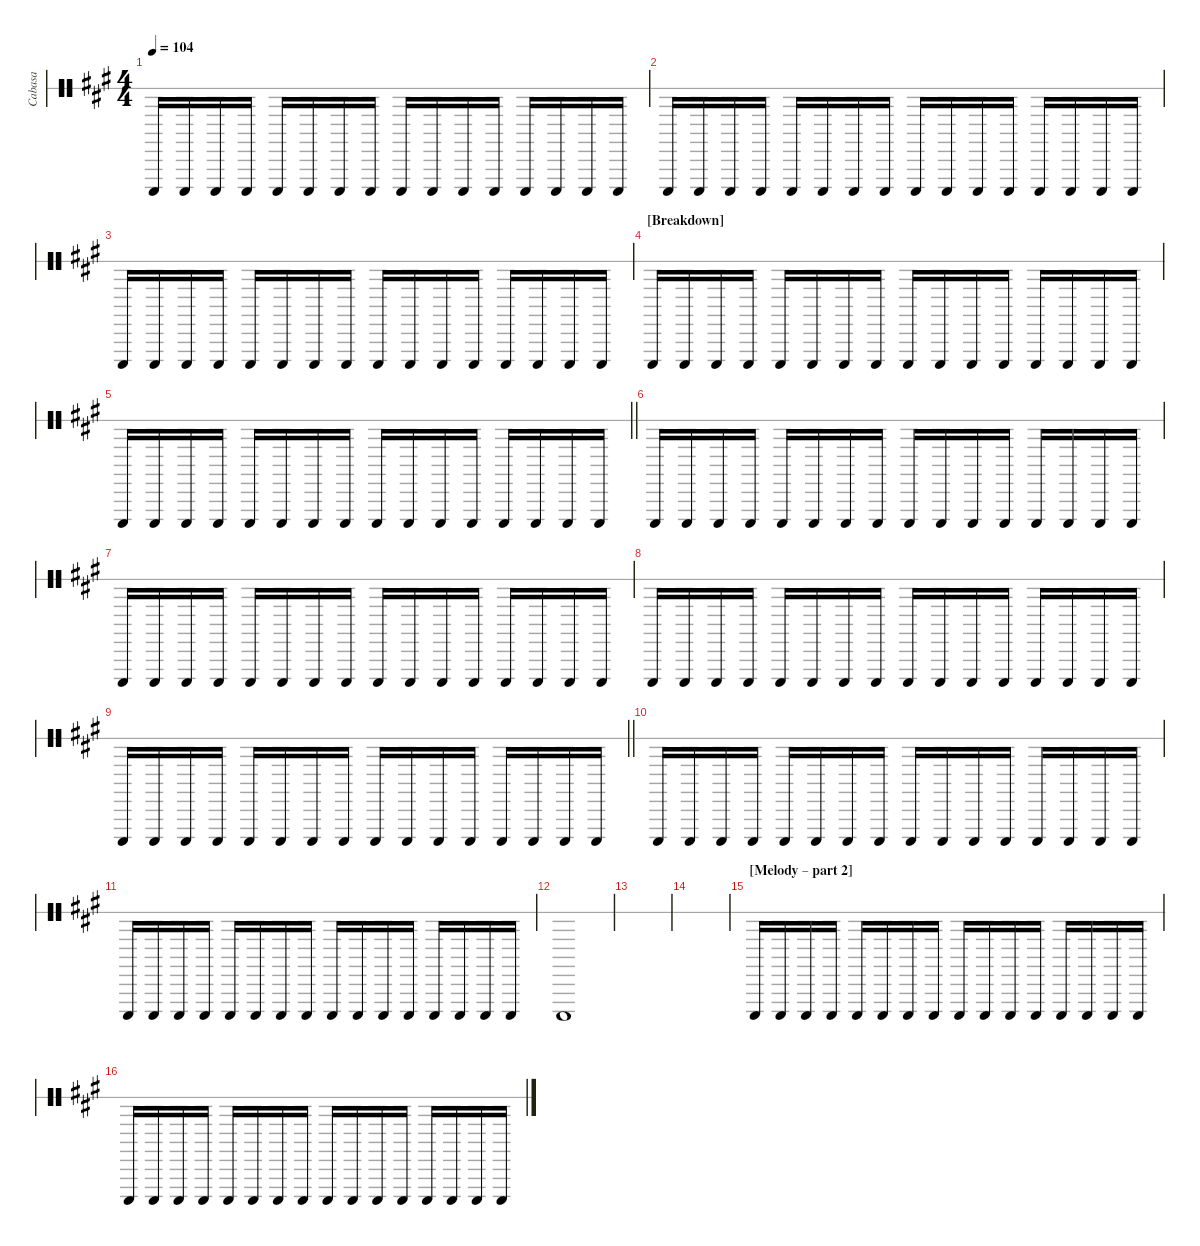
\hideDynamics
\bracketExtendMode nobrackets
\otherSystemsTrackNameOrientation horizontal
\track ("Cabasa" "Cabasa") {instrument percussion}
\staff {score 1}
\articulation defaults
\ts (4 4)
\tempo 104
\clef neutral
\ks a "Cabasa (hit)"{acc forcenatural}.16{dy f beam Up} "Cabasa (hit)"{acc forcenatural}.16{beam Up} "Cabasa (hit)"{acc forcenatural}.16{beam Up} "Cabasa (hit)"{acc forcenatural}.16{beam Up} "Cabasa (hit)"{acc forcenatural}.16{beam Up} "Cabasa (hit)"{acc forcenatural}.16{beam Up} "Cabasa (hit)"{acc forcenatural}.16{beam Up} "Cabasa (hit)"{acc forcenatural}.16{beam Up} "Cabasa (hit)"{acc forcenatural}.16{beam Up} "Cabasa (hit)"{acc forcenatural}.16{beam Up} "Cabasa (hit)"{acc forcenatural}.16{beam Up} "Cabasa (hit)"{acc forcenatural}.16{beam Up} "Cabasa (hit)"{acc forcenatural}.16{beam Up} "Cabasa (hit)"{acc forcenatural}.16{beam Up} "Cabasa (hit)"{acc forcenatural}.16{beam Up} "Cabasa (hit)"{acc forcenatural}.16{beam Up}
|
"Cabasa (hit)"{acc forcenatural}.16{beam Up} "Cabasa (hit)"{acc forcenatural}.16{beam Up} "Cabasa (hit)"{acc forcenatural}.16{beam Up} "Cabasa (hit)"{acc forcenatural}.16{beam Up} "Cabasa (hit)"{acc forcenatural}.16{beam Up} "Cabasa (hit)"{acc forcenatural}.16{beam Up} "Cabasa (hit)"{acc forcenatural}.16{beam Up} "Cabasa (hit)"{acc forcenatural}.16{beam Up} "Cabasa (hit)"{acc forcenatural}.16{beam Up} "Cabasa (hit)"{acc forcenatural}.16{beam Up} "Cabasa (hit)"{acc forcenatural}.16{beam Up} "Cabasa (hit)"{acc forcenatural}.16{beam Up} "Cabasa (hit)"{acc forcenatural}.16{beam Up} "Cabasa (hit)"{acc forcenatural}.16{beam Up} "Cabasa (hit)"{acc forcenatural}.16{beam Up} "Cabasa (hit)"{acc forcenatural}.16{beam Up} |
"Cabasa (hit)"{acc forcenatural}.16{beam Up} "Cabasa (hit)"{acc forcenatural}.16{beam Up} "Cabasa (hit)"{acc forcenatural}.16{beam Up} "Cabasa (hit)"{acc forcenatural}.16{beam Up} "Cabasa (hit)"{acc forcenatural}.16{beam Up} "Cabasa (hit)"{acc forcenatural}.16{beam Up} "Cabasa (hit)"{acc forcenatural}.16{beam Up} "Cabasa (hit)"{acc forcenatural}.16{beam Up} "Cabasa (hit)"{acc forcenatural}.16{beam Up} "Cabasa (hit)"{acc forcenatural}.16{beam Up} "Cabasa (hit)"{acc forcenatural}.16{beam Up} "Cabasa (hit)"{acc forcenatural}.16{beam Up} "Cabasa (hit)"{acc forcenatural}.16{beam Up} "Cabasa (hit)"{acc forcenatural}.16{beam Up} "Cabasa (hit)"{acc forcenatural}.16{beam Up} "Cabasa (hit)"{acc forcenatural}.16{beam Up} |
\section ("" "[Breakdown]")
"Cabasa (hit)"{acc forcenatural}.16{beam Up} "Cabasa (hit)"{acc forcenatural}.16{beam Up} "Cabasa (hit)"{acc forcenatural}.16{beam Up} "Cabasa (hit)"{acc forcenatural}.16{beam Up} "Cabasa (hit)"{acc forcenatural}.16{beam Up} "Cabasa (hit)"{acc forcenatural}.16{beam Up} "Cabasa (hit)"{acc forcenatural}.16{beam Up} "Cabasa (hit)"{acc forcenatural}.16{beam Up} "Cabasa (hit)"{acc forcenatural}.16{beam Up} "Cabasa (hit)"{acc forcenatural}.16{beam Up} "Cabasa (hit)"{acc forcenatural}.16{beam Up} "Cabasa (hit)"{acc forcenatural}.16{beam Up} "Cabasa (hit)"{acc forcenatural}.16{beam Up} "Cabasa (hit)"{acc forcenatural}.16{beam Up} "Cabasa (hit)"{acc forcenatural}.16{beam Up} "Cabasa (hit)"{acc forcenatural}.16{beam Up} |
\barLineRight lightlight "Cabasa (hit)"{acc forcenatural}.16{beam Up} "Cabasa (hit)"{acc forcenatural}.16{beam Up} "Cabasa (hit)"{acc forcenatural}.16{beam Up} "Cabasa (hit)"{acc forcenatural}.16{beam Up} "Cabasa (hit)"{acc forcenatural}.16{beam Up} "Cabasa (hit)"{acc forcenatural}.16{beam Up} "Cabasa (hit)"{acc forcenatural}.16{beam Up} "Cabasa (hit)"{acc forcenatural}.16{beam Up} "Cabasa (hit)"{acc forcenatural}.16{beam Up} "Cabasa (hit)"{acc forcenatural}.16{beam Up} "Cabasa (hit)"{acc forcenatural}.16{beam Up} "Cabasa (hit)"{acc forcenatural}.16{beam Up} "Cabasa (hit)"{acc forcenatural}.16{beam Up} "Cabasa (hit)"{acc forcenatural}.16{beam Up} "Cabasa (hit)"{acc forcenatural}.16{beam Up} "Cabasa (hit)"{acc forcenatural}.16{beam Up}
|
"Cabasa (hit)"{acc forcenatural}.16{beam Up} "Cabasa (hit)"{acc forcenatural}.16{beam Up} "Cabasa (hit)"{acc forcenatural}.16{beam Up} "Cabasa (hit)"{acc forcenatural}.16{beam Up} "Cabasa (hit)"{acc forcenatural}.16{beam Up} "Cabasa (hit)"{acc forcenatural}.16{beam Up} "Cabasa (hit)"{acc forcenatural}.16{beam Up} "Cabasa (hit)"{acc forcenatural}.16{beam Up} "Cabasa (hit)"{acc forcenatural}.16{beam Up} "Cabasa (hit)"{acc forcenatural}.16{beam Up} "Cabasa (hit)"{acc forcenatural}.16{beam Up} "Cabasa (hit)"{acc forcenatural}.16{beam Up} "Cabasa (hit)"{acc forcenatural}.16{beam Up} "Cabasa (hit)"{acc forcenatural}.16{beam Up} "Cabasa (hit)"{acc forcenatural}.16{beam Up} "Cabasa (hit)"{acc forcenatural}.16{beam Up} |
"Cabasa (hit)"{acc forcenatural}.16{beam Up} "Cabasa (hit)"{acc forcenatural}.16{beam Up} "Cabasa (hit)"{acc forcenatural}.16{beam Up} "Cabasa (hit)"{acc forcenatural}.16{beam Up} "Cabasa (hit)"{acc forcenatural}.16{beam Up} "Cabasa (hit)"{acc forcenatural}.16{beam Up} "Cabasa (hit)"{acc forcenatural}.16{beam Up} "Cabasa (hit)"{acc forcenatural}.16{beam Up} "Cabasa (hit)"{acc forcenatural}.16{beam Up} "Cabasa (hit)"{acc forcenatural}.16{beam Up} "Cabasa (hit)"{acc forcenatural}.16{beam Up} "Cabasa (hit)"{acc forcenatural}.16{beam Up} "Cabasa (hit)"{acc forcenatural}.16{beam Up} "Cabasa (hit)"{acc forcenatural}.16{beam Up} "Cabasa (hit)"{acc forcenatural}.16{beam Up} "Cabasa (hit)"{acc forcenatural}.16{beam Up} |
"Cabasa (hit)"{acc forcenatural}.16{beam Up} "Cabasa (hit)"{acc forcenatural}.16{beam Up} "Cabasa (hit)"{acc forcenatural}.16{beam Up} "Cabasa (hit)"{acc forcenatural}.16{beam Up} "Cabasa (hit)"{acc forcenatural}.16{beam Up} "Cabasa (hit)"{acc forcenatural}.16{beam Up} "Cabasa (hit)"{acc forcenatural}.16{beam Up} "Cabasa (hit)"{acc forcenatural}.16{beam Up} "Cabasa (hit)"{acc forcenatural}.16{beam Up} "Cabasa (hit)"{acc forcenatural}.16{beam Up} "Cabasa (hit)"{acc forcenatural}.16{beam Up} "Cabasa (hit)"{acc forcenatural}.16{beam Up} "Cabasa (hit)"{acc forcenatural}.16{beam Up} "Cabasa (hit)"{acc forcenatural}.16{beam Up} "Cabasa (hit)"{acc forcenatural}.16{beam Up} "Cabasa (hit)"{acc forcenatural}.16{beam Up} |
\barLineRight lightlight "Cabasa (hit)"{acc forcenatural}.16{beam Up} "Cabasa (hit)"{acc forcenatural}.16{beam Up} "Cabasa (hit)"{acc forcenatural}.16{beam Up} "Cabasa (hit)"{acc forcenatural}.16{beam Up} "Cabasa (hit)"{acc forcenatural}.16{beam Up} "Cabasa (hit)"{acc forcenatural}.16{beam Up} "Cabasa (hit)"{acc forcenatural}.16{beam Up} "Cabasa (hit)"{acc forcenatural}.16{beam Up} "Cabasa (hit)"{acc forcenatural}.16{beam Up} "Cabasa (hit)"{acc forcenatural}.16{beam Up} "Cabasa (hit)"{acc forcenatural}.16{beam Up} "Cabasa (hit)"{acc forcenatural}.16{beam Up} "Cabasa (hit)"{acc forcenatural}.16{beam Up} "Cabasa (hit)"{acc forcenatural}.16{beam Up} "Cabasa (hit)"{acc forcenatural}.16{beam Up} "Cabasa (hit)"{acc forcenatural}.16{beam Up}
|
"Cabasa (hit)"{acc forcenatural}.16{beam Up} "Cabasa (hit)"{acc forcenatural}.16{beam Up} "Cabasa (hit)"{acc forcenatural}.16{beam Up} "Cabasa (hit)"{acc forcenatural}.16{beam Up} "Cabasa (hit)"{acc forcenatural}.16{beam Up} "Cabasa (hit)"{acc forcenatural}.16{beam Up} "Cabasa (hit)"{acc forcenatural}.16{beam Up} "Cabasa (hit)"{acc forcenatural}.16{beam Up} "Cabasa (hit)"{acc forcenatural}.16{beam Up} "Cabasa (hit)"{acc forcenatural}.16{beam Up} "Cabasa (hit)"{acc forcenatural}.16{beam Up} "Cabasa (hit)"{acc forcenatural}.16{beam Up} "Cabasa (hit)"{acc forcenatural}.16{beam Up} "Cabasa (hit)"{acc forcenatural}.16{beam Up} "Cabasa (hit)"{acc forcenatural}.16{beam Up} "Cabasa (hit)"{acc forcenatural}.16{beam Up} |
"Cabasa (hit)"{acc forcenatural}.16{beam Up} "Cabasa (hit)"{acc forcenatural}.16{beam Up} "Cabasa (hit)"{acc forcenatural}.16{beam Up} "Cabasa (hit)"{acc forcenatural}.16{beam Up} "Cabasa (hit)"{acc forcenatural}.16{beam Up} "Cabasa (hit)"{acc forcenatural}.16{beam Up} "Cabasa (hit)"{acc forcenatural}.16{beam Up} "Cabasa (hit)"{acc forcenatural}.16{beam Up} "Cabasa (hit)"{acc forcenatural}.16{beam Up} "Cabasa (hit)"{acc forcenatural}.16{beam Up} "Cabasa (hit)"{acc forcenatural}.16{beam Up} "Cabasa (hit)"{acc forcenatural}.16{beam Up} "Cabasa (hit)"{acc forcenatural}.16{beam Up} "Cabasa (hit)"{acc forcenatural}.16{beam Up} "Cabasa (hit)"{acc forcenatural}.16{beam Up} "Cabasa (hit)"{acc forcenatural}.16{beam Up} |
"Cabasa (hit)"{acc forcenatural}.1{beam Down} |
|
|
\section ("" "[Melody – part 2] ")
"Cabasa (hit)"{acc forcenatural}.16{beam Up} "Cabasa (hit)"{acc forcenatural}.16{beam Up} "Cabasa (hit)"{acc forcenatural}.16{beam Up} "Cabasa (hit)"{acc forcenatural}.16{beam Up} "Cabasa (hit)"{acc forcenatural}.16{beam Up} "Cabasa (hit)"{acc forcenatural}.16{beam Up} "Cabasa (hit)"{acc forcenatural}.16{beam Up} "Cabasa (hit)"{acc forcenatural}.16{beam Up} "Cabasa (hit)"{acc forcenatural}.16{beam Up} "Cabasa (hit)"{acc forcenatural}.16{beam Up} "Cabasa (hit)"{acc forcenatural}.16{beam Up} "Cabasa (hit)"{acc forcenatural}.16{beam Up} "Cabasa (hit)"{acc forcenatural}.16{beam Up} "Cabasa (hit)"{acc forcenatural}.16{beam Up} "Cabasa (hit)"{acc forcenatural}.16{beam Up} "Cabasa (hit)"{acc forcenatural}.16{beam Up} |
"Cabasa (hit)"{acc forcenatural}.16{beam Up} "Cabasa (hit)"{acc forcenatural}.16{beam Up} "Cabasa (hit)"{acc forcenatural}.16{beam Up} "Cabasa (hit)"{acc forcenatural}.16{beam Up} "Cabasa (hit)"{acc forcenatural}.16{beam Up} "Cabasa (hit)"{acc forcenatural}.16{beam Up} "Cabasa (hit)"{acc forcenatural}.16{beam Up} "Cabasa (hit)"{acc forcenatural}.16{beam Up} "Cabasa (hit)"{acc forcenatural}.16{beam Up} "Cabasa (hit)"{acc forcenatural}.16{beam Up} "Cabasa (hit)"{acc forcenatural}.16{beam Up} "Cabasa (hit)"{acc forcenatural}.16{beam Up} "Cabasa (hit)"{acc forcenatural}.16{beam Up} "Cabasa (hit)"{acc forcenatural}.16{beam Up} "Cabasa (hit)"{acc forcenatural}.16{beam Up} "Cabasa (hit)"{acc forcenatural}.16{beam Up}
